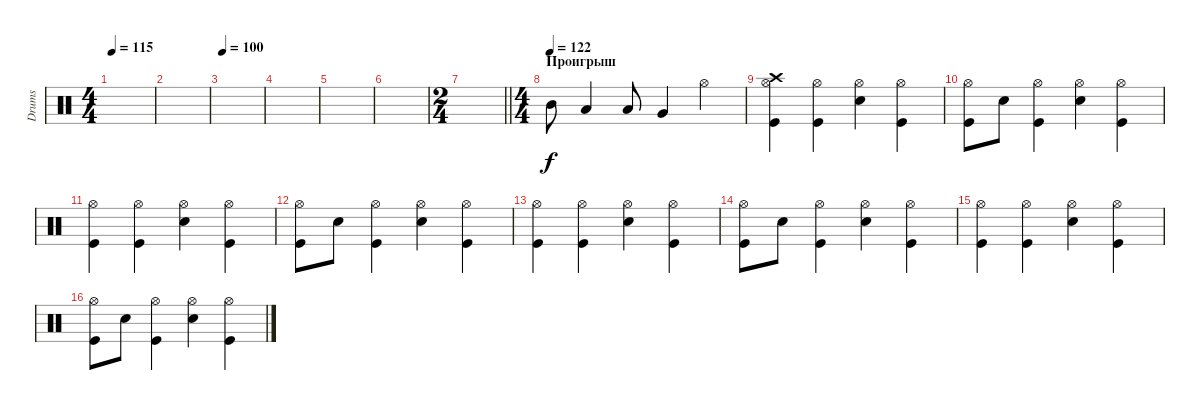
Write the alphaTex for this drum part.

\track ("Drums" "Drums") {instrument percussion}
\staff {score}
\articulation defaults
\ts (4 4)
\tempo 115
\clef neutral
\ks c
|
|
\tempo 100
|
|
|
|
\ts (2 4)
\barLineRight lightlight
|
\ts (4 4)
\section ("" "Проигрыш")
\tempo (122)
"Mid Tom (hit)".8 "Low Tom (hit)".4 "Low Tom (hit)".8 "Very Low Tom (hit)".4 "Hi-Hat (open)".4 |
("Kick (hit)" "Hi-Hat (open)" "Crash high (hit)").4 ("Kick (hit)" "Hi-Hat (open)").4 ("Snare (hit) 2" "Hi-Hat (open)").4 ("Kick (hit)" "Hi-Hat (open)").4 |
("Kick (hit)" "Hi-Hat (open)").8 "Snare (hit) 2".8 ("Kick (hit)" "Hi-Hat (open)").4 ("Snare (hit) 2" "Hi-Hat (open)").4 ("Kick (hit)" "Hi-Hat (open)").4 |
("Kick (hit)" "Hi-Hat (open)").4 ("Kick (hit)" "Hi-Hat (open)").4 ("Snare (hit) 2" "Hi-Hat (open)").4 ("Kick (hit)" "Hi-Hat (open)").4 |
("Kick (hit)" "Hi-Hat (open)").8 "Snare (hit) 2".8 ("Kick (hit)" "Hi-Hat (open)").4 ("Snare (hit) 2" "Hi-Hat (open)").4 ("Kick (hit)" "Hi-Hat (open)").4 |
("Kick (hit)" "Hi-Hat (open)").4 ("Kick (hit)" "Hi-Hat (open)").4 ("Snare (hit) 2" "Hi-Hat (open)").4 ("Kick (hit)" "Hi-Hat (open)").4 |
("Kick (hit)" "Hi-Hat (open)").8 "Snare (hit) 2".8 ("Kick (hit)" "Hi-Hat (open)").4 ("Snare (hit) 2" "Hi-Hat (open)").4 ("Kick (hit)" "Hi-Hat (open)").4 |
("Kick (hit)" "Hi-Hat (open)").4 ("Kick (hit)" "Hi-Hat (open)").4 ("Snare (hit) 2" "Hi-Hat (open)").4 ("Kick (hit)" "Hi-Hat (open)").4 |
("Kick (hit)" "Hi-Hat (open)").8 "Snare (hit) 2".8 ("Kick (hit)" "Hi-Hat (open)").4 ("Snare (hit) 2" "Hi-Hat (open)").4 ("Kick (hit)" "Hi-Hat (open)").4
